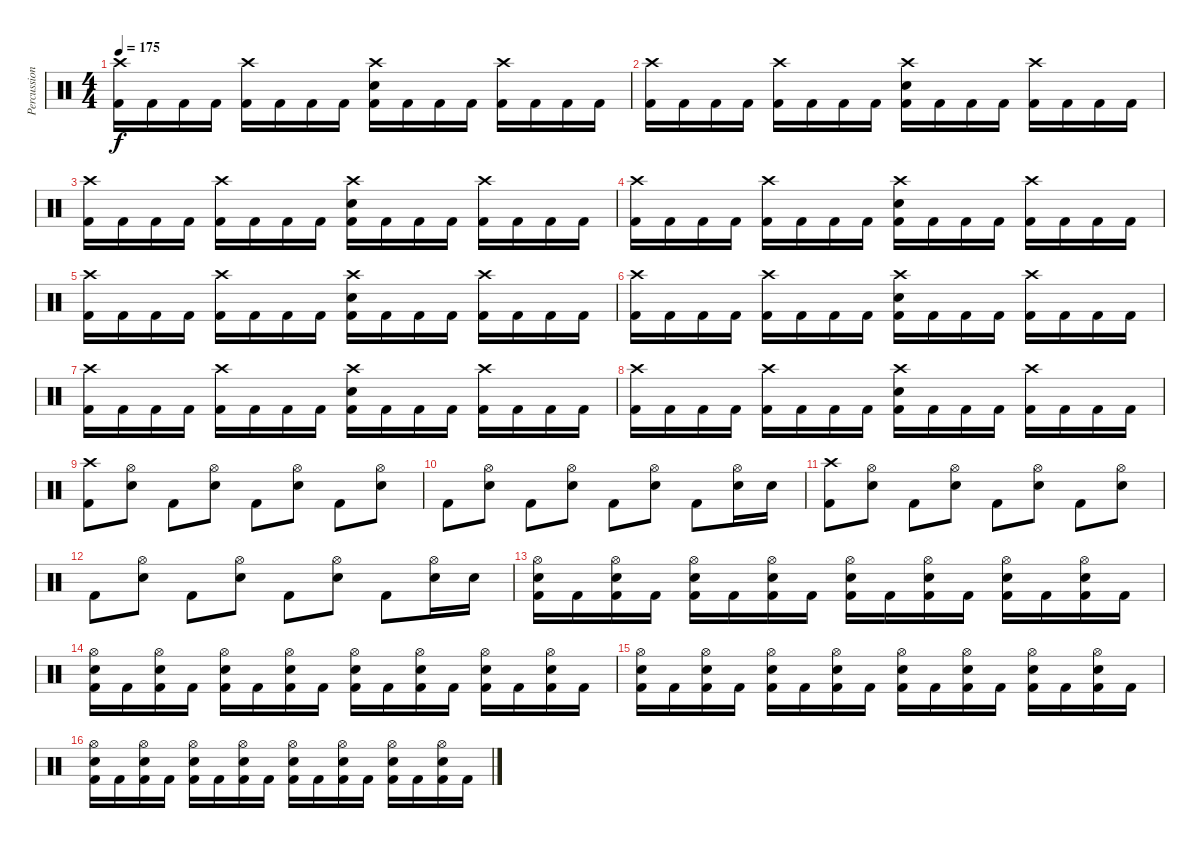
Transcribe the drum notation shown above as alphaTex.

\track ("Percussion" "Percussion") {instrument percussion}
\staff {score}
\articulation defaults
\ts (4 4)
\tempo 175
\clef neutral
\ks c
("Crash high (hit)" "Kick (hit) 2").16{dy f} "Kick (hit) 2".16 "Kick (hit) 2".16 "Kick (hit) 2".16 ("Crash high (hit)" "Kick (hit) 2").16 "Kick (hit) 2".16 "Kick (hit) 2".16 "Kick (hit) 2".16 ("Crash high (hit)" "Electric Snare (hit)" "Kick (hit) 2").16 "Kick (hit) 2".16 "Kick (hit) 2".16 "Kick (hit) 2".16 ("Crash high (hit)" "Kick (hit) 2").16 "Kick (hit) 2".16 "Kick (hit) 2".16 "Kick (hit) 2".16 |
("Crash high (hit)" "Kick (hit) 2").16 "Kick (hit) 2".16 "Kick (hit) 2".16 "Kick (hit) 2".16 ("Crash high (hit)" "Kick (hit) 2").16 "Kick (hit) 2".16 "Kick (hit) 2".16 "Kick (hit) 2".16 ("Crash high (hit)" "Electric Snare (hit)" "Kick (hit) 2").16 "Kick (hit) 2".16 "Kick (hit) 2".16 "Kick (hit) 2".16 ("Crash high (hit)" "Kick (hit) 2").16 "Kick (hit) 2".16 "Kick (hit) 2".16 "Kick (hit) 2".16 |
("Crash high (hit)" "Kick (hit) 2").16 "Kick (hit) 2".16 "Kick (hit) 2".16 "Kick (hit) 2".16 ("Crash high (hit)" "Kick (hit) 2").16 "Kick (hit) 2".16 "Kick (hit) 2".16 "Kick (hit) 2".16 ("Crash high (hit)" "Electric Snare (hit)" "Kick (hit) 2").16 "Kick (hit) 2".16 "Kick (hit) 2".16 "Kick (hit) 2".16 ("Crash high (hit)" "Kick (hit) 2").16 "Kick (hit) 2".16 "Kick (hit) 2".16 "Kick (hit) 2".16 |
("Crash high (hit)" "Kick (hit) 2").16 "Kick (hit) 2".16 "Kick (hit) 2".16 "Kick (hit) 2".16 ("Crash high (hit)" "Kick (hit) 2").16 "Kick (hit) 2".16 "Kick (hit) 2".16 "Kick (hit) 2".16 ("Crash high (hit)" "Electric Snare (hit)" "Kick (hit) 2").16 "Kick (hit) 2".16 "Kick (hit) 2".16 "Kick (hit) 2".16 ("Crash high (hit)" "Kick (hit) 2").16 "Kick (hit) 2".16 "Kick (hit) 2".16 "Kick (hit) 2".16 |
("Crash high (hit)" "Kick (hit) 2").16 "Kick (hit) 2".16 "Kick (hit) 2".16 "Kick (hit) 2".16 ("Crash high (hit)" "Kick (hit) 2").16 "Kick (hit) 2".16 "Kick (hit) 2".16 "Kick (hit) 2".16 ("Crash high (hit)" "Electric Snare (hit)" "Kick (hit) 2").16 "Kick (hit) 2".16 "Kick (hit) 2".16 "Kick (hit) 2".16 ("Crash high (hit)" "Kick (hit) 2").16 "Kick (hit) 2".16 "Kick (hit) 2".16 "Kick (hit) 2".16 |
("Crash high (hit)" "Kick (hit) 2").16 "Kick (hit) 2".16 "Kick (hit) 2".16 "Kick (hit) 2".16 ("Crash high (hit)" "Kick (hit) 2").16 "Kick (hit) 2".16 "Kick (hit) 2".16 "Kick (hit) 2".16 ("Crash high (hit)" "Electric Snare (hit)" "Kick (hit) 2").16 "Kick (hit) 2".16 "Kick (hit) 2".16 "Kick (hit) 2".16 ("Crash high (hit)" "Kick (hit) 2").16 "Kick (hit) 2".16 "Kick (hit) 2".16 "Kick (hit) 2".16 |
("Crash high (hit)" "Kick (hit) 2").16 "Kick (hit) 2".16 "Kick (hit) 2".16 "Kick (hit) 2".16 ("Crash high (hit)" "Kick (hit) 2").16 "Kick (hit) 2".16 "Kick (hit) 2".16 "Kick (hit) 2".16 ("Crash high (hit)" "Electric Snare (hit)" "Kick (hit) 2").16 "Kick (hit) 2".16 "Kick (hit) 2".16 "Kick (hit) 2".16 ("Crash high (hit)" "Kick (hit) 2").16 "Kick (hit) 2".16 "Kick (hit) 2".16 "Kick (hit) 2".16 |
("Crash high (hit)" "Kick (hit) 2").16 "Kick (hit) 2".16 "Kick (hit) 2".16 "Kick (hit) 2".16 ("Crash high (hit)" "Kick (hit) 2").16 "Kick (hit) 2".16 "Kick (hit) 2".16 "Kick (hit) 2".16 ("Crash high (hit)" "Electric Snare (hit)" "Kick (hit) 2").16 "Kick (hit) 2".16 "Kick (hit) 2".16 "Kick (hit) 2".16 ("Crash high (hit)" "Kick (hit) 2").16 "Kick (hit) 2".16 "Kick (hit) 2".16 "Kick (hit) 2".16 |
("Crash high (hit)" "Kick (hit) 2").8 ("Hi-Hat (open)" "Electric Snare (hit)").8 "Kick (hit) 2".8 ("Hi-Hat (open)" "Electric Snare (hit)").8 "Kick (hit) 2".8 ("Hi-Hat (open)" "Electric Snare (hit)").8 "Kick (hit) 2".8 ("Hi-Hat (open)" "Electric Snare (hit)").8 |
"Kick (hit) 2".8 ("Hi-Hat (open)" "Electric Snare (hit)").8 "Kick (hit) 2".8 ("Hi-Hat (open)" "Electric Snare (hit)").8 "Kick (hit) 2".8 ("Hi-Hat (open)" "Electric Snare (hit)").8 "Kick (hit) 2".8 ("Hi-Hat (open)" "Electric Snare (hit)").16 "Electric Snare (hit)".16 |
("Crash high (hit)" "Kick (hit) 2").8 ("Hi-Hat (open)" "Electric Snare (hit)").8 "Kick (hit) 2".8 ("Hi-Hat (open)" "Electric Snare (hit)").8 "Kick (hit) 2".8 ("Hi-Hat (open)" "Electric Snare (hit)").8 "Kick (hit) 2".8 ("Hi-Hat (open)" "Electric Snare (hit)").8 |
"Kick (hit) 2".8 ("Hi-Hat (open)" "Electric Snare (hit)").8 "Kick (hit) 2".8 ("Hi-Hat (open)" "Electric Snare (hit)").8 "Kick (hit) 2".8 ("Hi-Hat (open)" "Electric Snare (hit)").8 "Kick (hit) 2".8 ("Hi-Hat (open)" "Electric Snare (hit)").16 "Electric Snare (hit)".16 |
("Hi-Hat (open)" "Electric Snare (hit)" "Kick (hit) 2").16 "Kick (hit) 2".16 ("Hi-Hat (open)" "Electric Snare (hit)" "Kick (hit) 2").16 "Kick (hit) 2".16 ("Hi-Hat (open)" "Electric Snare (hit)" "Kick (hit) 2").16 "Kick (hit) 2".16 ("Hi-Hat (open)" "Electric Snare (hit)" "Kick (hit) 2").16 "Kick (hit) 2".16 ("Hi-Hat (open)" "Electric Snare (hit)" "Kick (hit) 2").16 "Kick (hit) 2".16 ("Hi-Hat (open)" "Electric Snare (hit)" "Kick (hit) 2").16 "Kick (hit) 2".16 ("Hi-Hat (open)" "Electric Snare (hit)" "Kick (hit) 2").16 "Kick (hit) 2".16 ("Hi-Hat (open)" "Electric Snare (hit)" "Kick (hit) 2").16 "Kick (hit) 2".16 |
("Hi-Hat (open)" "Electric Snare (hit)" "Kick (hit) 2").16 "Kick (hit) 2".16 ("Hi-Hat (open)" "Electric Snare (hit)" "Kick (hit) 2").16 "Kick (hit) 2".16 ("Hi-Hat (open)" "Electric Snare (hit)" "Kick (hit) 2").16 "Kick (hit) 2".16 ("Hi-Hat (open)" "Electric Snare (hit)" "Kick (hit) 2").16 "Kick (hit) 2".16 ("Hi-Hat (open)" "Electric Snare (hit)" "Kick (hit) 2").16 "Kick (hit) 2".16 ("Hi-Hat (open)" "Electric Snare (hit)" "Kick (hit) 2").16 "Kick (hit) 2".16 ("Hi-Hat (open)" "Electric Snare (hit)" "Kick (hit) 2").16 "Kick (hit) 2".16 ("Hi-Hat (open)" "Electric Snare (hit)" "Kick (hit) 2").16 "Kick (hit) 2".16 |
("Hi-Hat (open)" "Electric Snare (hit)" "Kick (hit) 2").16 "Kick (hit) 2".16 ("Hi-Hat (open)" "Electric Snare (hit)" "Kick (hit) 2").16 "Kick (hit) 2".16 ("Hi-Hat (open)" "Electric Snare (hit)" "Kick (hit) 2").16 "Kick (hit) 2".16 ("Hi-Hat (open)" "Electric Snare (hit)" "Kick (hit) 2").16 "Kick (hit) 2".16 ("Hi-Hat (open)" "Electric Snare (hit)" "Kick (hit) 2").16 "Kick (hit) 2".16 ("Hi-Hat (open)" "Electric Snare (hit)" "Kick (hit) 2").16 "Kick (hit) 2".16 ("Hi-Hat (open)" "Electric Snare (hit)" "Kick (hit) 2").16 "Kick (hit) 2".16 ("Hi-Hat (open)" "Electric Snare (hit)" "Kick (hit) 2").16 "Kick (hit) 2".16 |
("Hi-Hat (open)" "Electric Snare (hit)" "Kick (hit) 2").16 "Kick (hit) 2".16 ("Hi-Hat (open)" "Electric Snare (hit)" "Kick (hit) 2").16 "Kick (hit) 2".16 ("Hi-Hat (open)" "Electric Snare (hit)" "Kick (hit) 2").16 "Kick (hit) 2".16 ("Hi-Hat (open)" "Electric Snare (hit)" "Kick (hit) 2").16 "Kick (hit) 2".16 ("Hi-Hat (open)" "Electric Snare (hit)" "Kick (hit) 2").16 "Kick (hit) 2".16 ("Hi-Hat (open)" "Electric Snare (hit)" "Kick (hit) 2").16 "Kick (hit) 2".16 ("Hi-Hat (open)" "Electric Snare (hit)" "Kick (hit) 2").16 "Kick (hit) 2".16 ("Hi-Hat (open)" "Electric Snare (hit)" "Kick (hit) 2").16 "Kick (hit) 2".16
